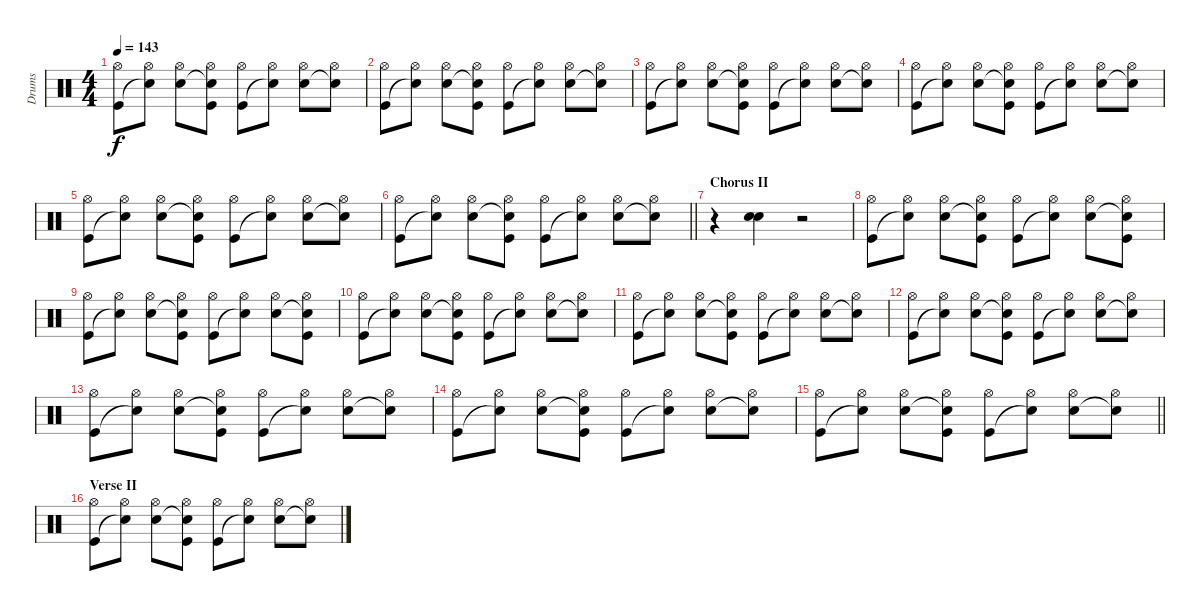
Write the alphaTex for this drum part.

\track ("Drums" "Drums") {instrument percussion}
\staff {score}
\articulation defaults
\ts (4 4)
\tempo 143
\clef neutral
\ks c
("Hi-Hat (open)" "Kick (hit)").8{dy f} ("Hi-Hat (open)" "Snare (hit)"{t}).8 ("Hi-Hat (open)" "Snare (hit) 2").8 ("Hi-Hat (open)" "Snare (hit)"{t} "Kick (hit)").8 ("Hi-Hat (open)" "Kick (hit)").8 ("Hi-Hat (open)" "Snare (hit)"{t}).8 ("Hi-Hat (open)" "Snare (hit) 2").8 ("Hi-Hat (open)" "Snare (hit)"{t}).8 |
("Hi-Hat (open)" "Kick (hit)").8 ("Hi-Hat (open)" "Snare (hit)"{t}).8 ("Hi-Hat (open)" "Snare (hit) 2").8 ("Hi-Hat (open)" "Snare (hit)"{t} "Kick (hit)").8 ("Hi-Hat (open)" "Kick (hit)").8 ("Hi-Hat (open)" "Snare (hit)"{t}).8 ("Hi-Hat (open)" "Snare (hit) 2").8 ("Hi-Hat (open)" "Snare (hit)"{t}).8 |
("Hi-Hat (open)" "Kick (hit)").8 ("Hi-Hat (open)" "Snare (hit)"{t}).8 ("Hi-Hat (open)" "Snare (hit) 2").8 ("Hi-Hat (open)" "Snare (hit)"{t} "Kick (hit)").8 ("Hi-Hat (open)" "Kick (hit)").8 ("Hi-Hat (open)" "Snare (hit)"{t}).8 ("Hi-Hat (open)" "Snare (hit) 2").8 ("Hi-Hat (open)" "Snare (hit)"{t}).8 |
("Hi-Hat (open)" "Kick (hit)").8 ("Hi-Hat (open)" "Snare (hit)"{t}).8 ("Hi-Hat (open)" "Snare (hit) 2").8 ("Hi-Hat (open)" "Snare (hit)"{t} "Kick (hit)").8 ("Hi-Hat (open)" "Kick (hit)").8 ("Hi-Hat (open)" "Snare (hit)"{t}).8 ("Hi-Hat (open)" "Snare (hit) 2").8 ("Hi-Hat (open)" "Snare (hit)"{t}).8 |
("Hi-Hat (open)" "Kick (hit)").8 ("Hi-Hat (open)" "Snare (hit)"{t}).8 ("Hi-Hat (open)" "Snare (hit) 2").8 ("Hi-Hat (open)" "Snare (hit)"{t} "Kick (hit)").8 ("Hi-Hat (open)" "Kick (hit)").8 ("Hi-Hat (open)" "Snare (hit)"{t}).8 ("Hi-Hat (open)" "Snare (hit) 2").8 ("Hi-Hat (open)" "Snare (hit)"{t}).8 |
\barLineRight lightlight
("Hi-Hat (open)" "Kick (hit)").8 ("Hi-Hat (open)" "Snare (hit)"{t}).8 ("Hi-Hat (open)" "Snare (hit) 2").8 ("Hi-Hat (open)" "Snare (hit)"{t} "Kick (hit)").8 ("Hi-Hat (open)" "Kick (hit)").8 ("Hi-Hat (open)" "Snare (hit)"{t}).8 ("Hi-Hat (open)" "Snare (hit) 2").8 ("Hi-Hat (open)" "Snare (hit)"{t}).8 |
\section ("" "Chorus II")
r.4 ("Electric Snare (hit)" "Snare (hit) 2").4 r.2 |
("Hi-Hat (open)" "Kick (hit)").8 ("Hi-Hat (open)" "Snare (hit)"{t}).8 ("Hi-Hat (open)" "Snare (hit) 2").8 ("Hi-Hat (open)" "Snare (hit)"{t} "Kick (hit)").8 ("Hi-Hat (open)" "Kick (hit)").8 ("Hi-Hat (open)" "Snare (hit)"{t}).8 ("Hi-Hat (open)" "Snare (hit) 2").8 ("Hi-Hat (open)" "Snare (hit)"{t} "Kick (hit)").8 |
("Hi-Hat (open)" "Kick (hit)").8 ("Hi-Hat (open)" "Snare (hit)"{t}).8 ("Hi-Hat (open)" "Snare (hit) 2").8 ("Hi-Hat (open)" "Snare (hit)"{t} "Kick (hit)").8 ("Hi-Hat (open)" "Kick (hit)").8 ("Hi-Hat (open)" "Snare (hit)"{t}).8 ("Hi-Hat (open)" "Snare (hit) 2").8 ("Hi-Hat (open)" "Snare (hit)"{t} "Kick (hit)").8 |
("Hi-Hat (open)" "Kick (hit)").8 ("Hi-Hat (open)" "Snare (hit)"{t}).8 ("Hi-Hat (open)" "Snare (hit) 2").8 ("Hi-Hat (open)" "Snare (hit)"{t} "Kick (hit)").8 ("Hi-Hat (open)" "Kick (hit)").8 ("Hi-Hat (open)" "Snare (hit)"{t}).8 ("Hi-Hat (open)" "Snare (hit) 2").8 ("Hi-Hat (open)" "Snare (hit)"{t}).8 |
("Hi-Hat (open)" "Kick (hit)").8 ("Hi-Hat (open)" "Snare (hit)"{t}).8 ("Hi-Hat (open)" "Snare (hit) 2").8 ("Hi-Hat (open)" "Snare (hit)"{t} "Kick (hit)").8 ("Hi-Hat (open)" "Kick (hit)").8 ("Hi-Hat (open)" "Snare (hit)"{t}).8 ("Hi-Hat (open)" "Snare (hit) 2").8 ("Hi-Hat (open)" "Snare (hit)"{t}).8 |
("Hi-Hat (open)" "Kick (hit)").8 ("Hi-Hat (open)" "Snare (hit)"{t}).8 ("Hi-Hat (open)" "Snare (hit) 2").8 ("Hi-Hat (open)" "Snare (hit)"{t} "Kick (hit)").8 ("Hi-Hat (open)" "Kick (hit)").8 ("Hi-Hat (open)" "Snare (hit)"{t}).8 ("Hi-Hat (open)" "Snare (hit) 2").8 ("Hi-Hat (open)" "Snare (hit)"{t}).8 |
("Hi-Hat (open)" "Kick (hit)").8 ("Hi-Hat (open)" "Snare (hit)"{t}).8 ("Hi-Hat (open)" "Snare (hit) 2").8 ("Hi-Hat (open)" "Snare (hit)"{t} "Kick (hit)").8 ("Hi-Hat (open)" "Kick (hit)").8 ("Hi-Hat (open)" "Snare (hit)"{t}).8 ("Hi-Hat (open)" "Snare (hit) 2").8 ("Hi-Hat (open)" "Snare (hit)"{t}).8 |
("Hi-Hat (open)" "Kick (hit)").8 ("Hi-Hat (open)" "Snare (hit)"{t}).8 ("Hi-Hat (open)" "Snare (hit) 2").8 ("Hi-Hat (open)" "Snare (hit)"{t} "Kick (hit)").8 ("Hi-Hat (open)" "Kick (hit)").8 ("Hi-Hat (open)" "Snare (hit)"{t}).8 ("Hi-Hat (open)" "Snare (hit) 2").8 ("Hi-Hat (open)" "Snare (hit)"{t}).8 |
\barLineRight lightlight
("Hi-Hat (open)" "Kick (hit)").8 ("Hi-Hat (open)" "Snare (hit)"{t}).8 ("Hi-Hat (open)" "Snare (hit) 2").8 ("Hi-Hat (open)" "Snare (hit)"{t} "Kick (hit)").8 ("Hi-Hat (open)" "Kick (hit)").8 ("Hi-Hat (open)" "Snare (hit)"{t}).8 ("Hi-Hat (open)" "Snare (hit) 2").8 ("Hi-Hat (open)" "Snare (hit)"{t}).8 |
\section ("" "Verse II")
("Hi-Hat (open)" "Kick (hit)").8 ("Hi-Hat (open)" "Snare (hit)"{t}).8 ("Hi-Hat (open)" "Snare (hit) 2").8 ("Hi-Hat (open)" "Snare (hit)"{t} "Kick (hit)").8 ("Hi-Hat (open)" "Kick (hit)").8 ("Hi-Hat (open)" "Snare (hit)"{t}).8 ("Hi-Hat (open)" "Snare (hit) 2").8 ("Hi-Hat (open)" "Snare (hit)"{t}).8
